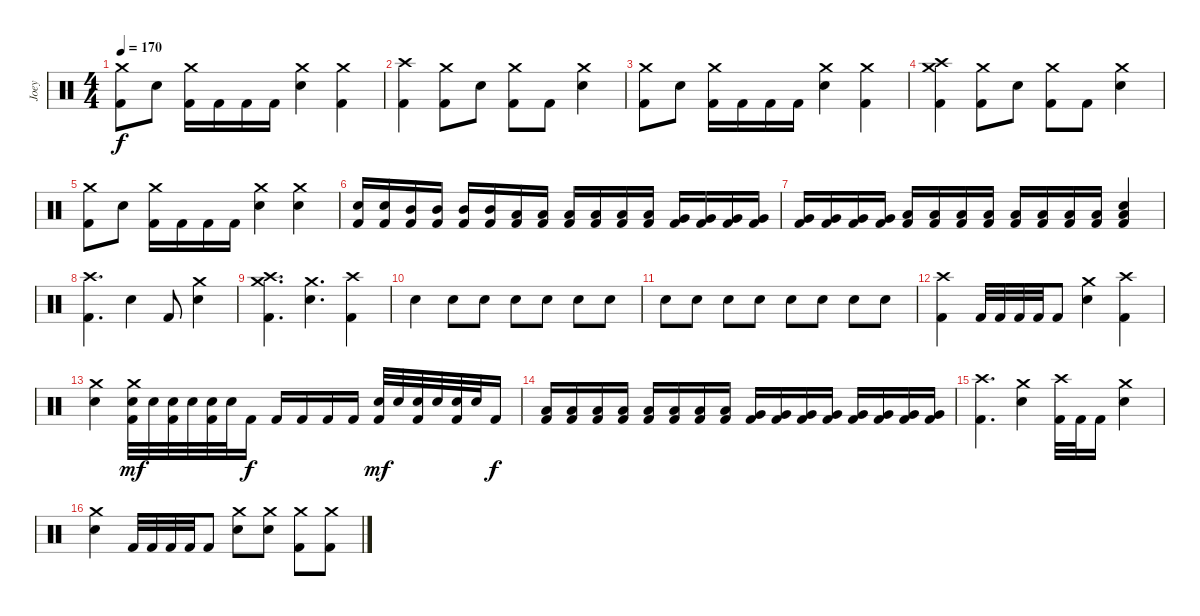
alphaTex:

\track ("Joey" "Joey") {instrument percussion}
\staff {score}
\articulation defaults
\ts (4 4)
\tempo 170
\clef neutral
\ks c
("Crash medium (hit)" "Kick (hit) 2").8{dy f} "Electric Snare (hit)".8 ("Crash medium (hit)" "Kick (hit) 2").16 "Kick (hit) 2".16 "Kick (hit) 2".16 "Kick (hit) 2".16 ("Crash medium (hit)" "Electric Snare (hit)").4 ("Crash medium (hit)" "Kick (hit) 2").4 |
("Crash high (hit)" "Kick (hit) 2").4 ("Crash medium (hit)" "Kick (hit) 2").8 "Electric Snare (hit)".8 ("Crash medium (hit)" "Kick (hit) 2").8 "Kick (hit) 2".8 ("Crash medium (hit)" "Electric Snare (hit)").4 |
("Crash medium (hit)" "Kick (hit) 2").8 "Electric Snare (hit)".8 ("Crash medium (hit)" "Kick (hit) 2").16 "Kick (hit) 2".16 "Kick (hit) 2".16 "Kick (hit) 2".16 ("Crash medium (hit)" "Electric Snare (hit)").4 ("Crash medium (hit)" "Kick (hit) 2").4 |
("Crash high (hit)" "Crash medium (hit)" "Kick (hit) 2").4 ("Crash medium (hit)" "Kick (hit) 2").8 "Electric Snare (hit)".8 ("Crash medium (hit)" "Kick (hit) 2").8 "Kick (hit) 2".8 ("Crash medium (hit)" "Electric Snare (hit)").4 |
("Crash medium (hit)" "Kick (hit) 2").8 "Electric Snare (hit)".8 ("Crash medium (hit)" "Kick (hit) 2").16 "Kick (hit) 2".16 "Kick (hit) 2".16 "Kick (hit) 2".16 ("Crash medium (hit)" "Electric Snare (hit)").4 ("Crash medium (hit)" "Electric Snare (hit)").4 |
("Electric Snare (hit)" "Kick (hit) 2").16 ("Electric Snare (hit)" "Kick (hit) 2").16 ("Mid Tom (hit)" "Kick (hit) 2").16 ("Mid Tom (hit)" "Kick (hit) 2").16 ("Mid Tom (hit)" "Kick (hit) 2").16 ("Mid Tom (hit)" "Kick (hit) 2").16 ("Low Tom (hit)" "Kick (hit) 2").16 ("Low Tom (hit)" "Kick (hit) 2").16 ("Low Tom (hit)" "Kick (hit) 2").16 ("Low Tom (hit)" "Kick (hit) 2").16 ("Low Tom (hit)" "Kick (hit) 2").16 ("Low Tom (hit)" "Kick (hit) 2").16 ("Very Low Tom (hit)" "Kick (hit) 2").16 ("Very Low Tom (hit)" "Kick (hit) 2").16 ("Very Low Tom (hit)" "Kick (hit) 2").16 ("Very Low Tom (hit)" "Kick (hit) 2").16 |
("Very Low Tom (hit)" "Kick (hit) 2").16 ("Very Low Tom (hit)" "Kick (hit) 2").16 ("Very Low Tom (hit)" "Kick (hit) 2").16 ("Very Low Tom (hit)" "Kick (hit) 2").16 ("Low Floor Tom (hit)" "Kick (hit) 2").16 ("Low Floor Tom (hit)" "Kick (hit) 2").16 ("Low Floor Tom (hit)" "Kick (hit) 2").16 ("Low Floor Tom (hit)" "Kick (hit) 2").16 ("Low Floor Tom (hit)" "Kick (hit) 2").16 ("Low Floor Tom (hit)" "Kick (hit) 2").16 ("Low Floor Tom (hit)" "Kick (hit) 2").16 ("Low Floor Tom (hit)" "Kick (hit) 2").16 ("Electric Snare (hit)" "Low Floor Tom (hit)" "Kick (hit) 2").4 |
("Crash high (hit)" "Kick (hit) 2").4{d} "Electric Snare (hit)".4 "Kick (hit) 2".8 ("Crash medium (hit)" "Electric Snare (hit)").4 |
("Crash high (hit)" "Crash medium (hit)" "Kick (hit) 2").4{d} ("Crash medium (hit)" "Electric Snare (hit)").4{d} ("Crash high (hit)" "Kick (hit) 2").4 |
"Electric Snare (hit)".4 "Electric Snare (hit)".8 "Electric Snare (hit)".8 "Electric Snare (hit)".8 "Electric Snare (hit)".8 "Electric Snare (hit)".8 "Electric Snare (hit)".8 |
"Electric Snare (hit)".8 "Electric Snare (hit)".8 "Electric Snare (hit)".8 "Electric Snare (hit)".8 "Electric Snare (hit)".8 "Electric Snare (hit)".8 "Electric Snare (hit)".8 "Electric Snare (hit)".8 |
("Crash high (hit)" "Kick (hit) 2").4 "Kick (hit) 2".32 "Kick (hit) 2".32 "Kick (hit) 2".32 "Kick (hit) 2".32 "Kick (hit) 2".8 ("Crash medium (hit)" "Electric Snare (hit)").4 ("Crash high (hit)" "Kick (hit) 2").4 |
("Crash medium (hit)" "Electric Snare (hit)").4 ("Crash medium (hit)" "Electric Snare (hit)" "Kick (hit) 2").32{dy mf} "Electric Snare (hit)".32 ("Electric Snare (hit)" "Kick (hit) 2").32 "Electric Snare (hit)".32 ("Electric Snare (hit)" "Kick (hit) 2").32 "Electric Snare (hit)".32 "Kick (hit) 2".16{dy f} "Kick (hit) 2".16 "Kick (hit) 2".16 "Kick (hit) 2".16 "Kick (hit) 2".16 ("Electric Snare (hit)" "Kick (hit) 2").32{dy mf} "Electric Snare (hit)".32 ("Electric Snare (hit)" "Kick (hit) 2").32 "Electric Snare (hit)".32 ("Electric Snare (hit)" "Kick (hit) 2").32 "Electric Snare (hit)".32 "Kick (hit) 2".16{dy f} |
("Low Floor Tom (hit)" "Kick (hit) 2").16 ("Low Floor Tom (hit)" "Kick (hit) 2").16 ("Low Floor Tom (hit)" "Kick (hit) 2").16 ("Low Floor Tom (hit)" "Kick (hit) 2").16 ("Low Floor Tom (hit)" "Kick (hit) 2").16 ("Low Floor Tom (hit)" "Kick (hit) 2").16 ("Low Floor Tom (hit)" "Kick (hit) 2").16 ("Low Floor Tom (hit)" "Kick (hit) 2").16 ("Very Low Tom (hit)" "Kick (hit) 2").16 ("Very Low Tom (hit)" "Kick (hit) 2").16 ("Very Low Tom (hit)" "Kick (hit) 2").16 ("Very Low Tom (hit)" "Kick (hit) 2").16 ("Very Low Tom (hit)" "Kick (hit) 2").16 ("Very Low Tom (hit)" "Kick (hit) 2").16 ("Very Low Tom (hit)" "Kick (hit) 2").16 ("Very Low Tom (hit)" "Kick (hit) 2").16 |
("Crash high (hit)" "Kick (hit) 2").4{d} ("Crash medium (hit)" "Electric Snare (hit)").4 ("Crash high (hit)" "Kick (hit) 2").32 "Kick (hit) 2".32 "Kick (hit) 2".16 ("Crash medium (hit)" "Electric Snare (hit)").4 |
("Crash medium (hit)" "Electric Snare (hit)").4 "Kick (hit) 2".32 "Kick (hit) 2".32 "Kick (hit) 2".32 "Kick (hit) 2".32 "Kick (hit) 2".8 ("Crash medium (hit)" "Electric Snare (hit)").8 ("Crash medium (hit)" "Electric Snare (hit)").8 ("Crash medium (hit)" "Kick (hit) 2").8 ("Crash medium (hit)" "Kick (hit) 2").8
